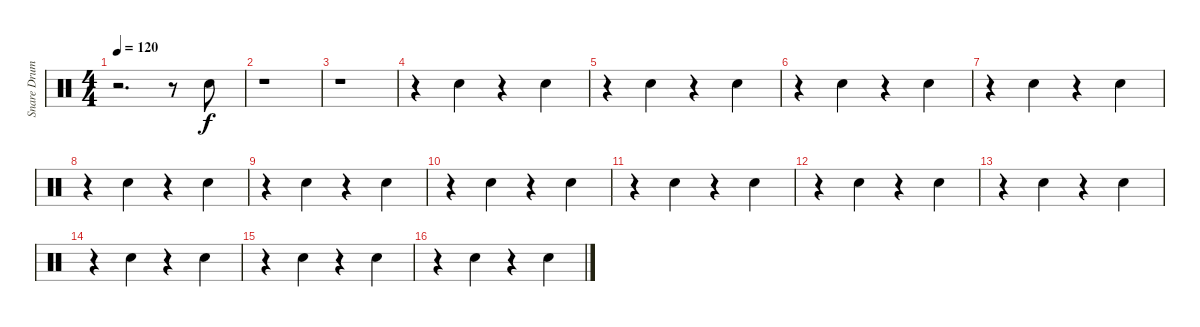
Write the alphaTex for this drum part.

\track ("Snare Drum" "Snare Drum") {instrument percussion}
\staff {score}
\articulation defaults
\ts (4 4)
\tempo 120
\clef neutral
\ks c
r.2{d dy f} r.8 "Snare (hit) 2".8 |
r.1 |
r.1 |
r.4 "Snare (hit) 2".4 r.4 "Snare (hit) 2".4 |
r.4 "Snare (hit) 2".4 r.4 "Snare (hit) 2".4 |
r.4 "Snare (hit) 2".4 r.4 "Snare (hit) 2".4 |
r.4 "Snare (hit) 2".4 r.4 "Snare (hit) 2".4 |
r.4 "Snare (hit) 2".4 r.4 "Snare (hit) 2".4 |
r.4 "Snare (hit) 2".4 r.4 "Snare (hit) 2".4 |
r.4 "Snare (hit) 2".4 r.4 "Snare (hit) 2".4 |
r.4 "Snare (hit) 2".4 r.4 "Snare (hit) 2".4 |
r.4 "Snare (hit) 2".4 r.4 "Snare (hit) 2".4 |
r.4 "Snare (hit) 2".4 r.4 "Snare (hit) 2".4 |
r.4 "Snare (hit) 2".4 r.4 "Snare (hit) 2".4 |
r.4 "Snare (hit) 2".4 r.4 "Snare (hit) 2".4 |
r.4 "Snare (hit) 2".4 r.4 "Snare (hit) 2".4
